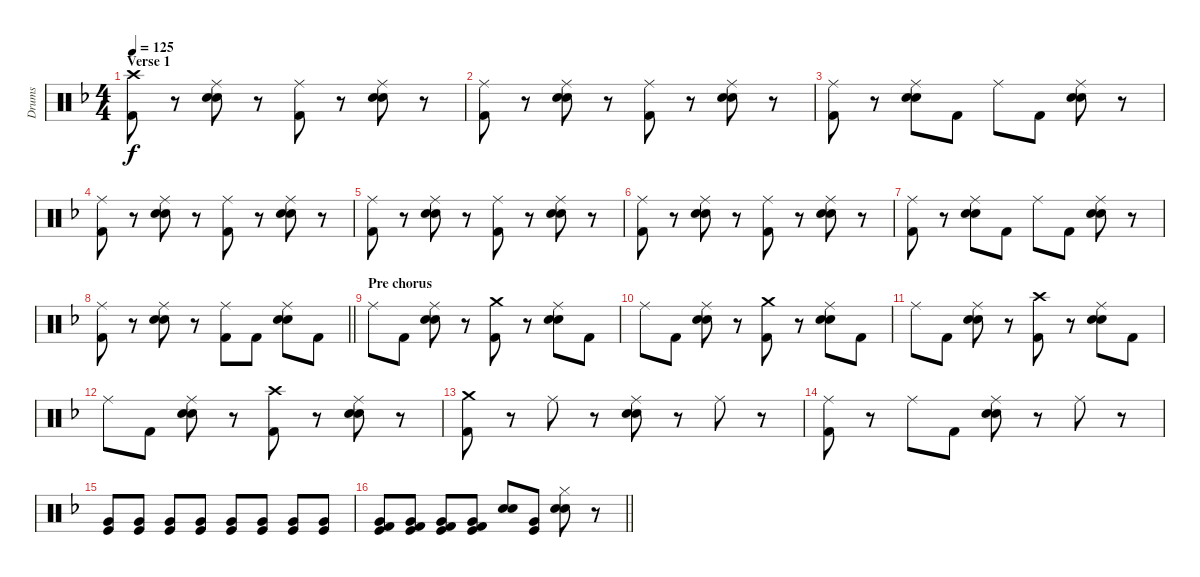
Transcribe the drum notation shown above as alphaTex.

\track ("Drums" "Drums") {instrument percussion}
\staff {score}
\articulation defaults
\ts (4 4)
\section ("" "Verse 1")
\tempo 125
\clef neutral
\ks f
("Crash high (hit)" "Kick (hit) 2").8{dy f} r.8 ("Ride (middle)" "Electric Snare (hit)" "Snare (hit) 2").8 r.8 ("Ride (middle)" "Kick (hit) 2").8 r.8 ("Ride (middle)" "Electric Snare (hit)" "Snare (hit) 2").8 r.8 |
("Ride (middle)" "Kick (hit) 2").8 r.8 ("Ride (middle)" "Electric Snare (hit)" "Snare (hit) 2").8 r.8 ("Ride (middle)" "Kick (hit) 2").8 r.8 ("Ride (middle)" "Electric Snare (hit)" "Snare (hit) 2").8 r.8 |
("Ride (middle)" "Kick (hit) 2").8 r.8 ("Ride (middle)" "Electric Snare (hit)" "Snare (hit) 2").8 "Kick (hit) 2".8 "Ride (middle)".8 "Kick (hit) 2".8 ("Ride (middle)" "Electric Snare (hit)" "Snare (hit) 2").8 r.8 |
("Ride (middle)" "Kick (hit) 2").8 r.8 ("Ride (middle)" "Electric Snare (hit)" "Snare (hit) 2").8 r.8 ("Ride (middle)" "Kick (hit) 2").8 r.8 ("Ride (middle)" "Electric Snare (hit)" "Snare (hit) 2").8 r.8 |
("Ride (middle)" "Kick (hit) 2").8 r.8 ("Ride (middle)" "Electric Snare (hit)" "Snare (hit) 2").8 r.8 ("Ride (middle)" "Kick (hit) 2").8 r.8 ("Ride (middle)" "Electric Snare (hit)" "Snare (hit) 2").8 r.8 |
("Ride (middle)" "Kick (hit) 2").8 r.8 ("Ride (middle)" "Electric Snare (hit)" "Snare (hit) 2").8 r.8 ("Ride (middle)" "Kick (hit) 2").8 r.8 ("Ride (middle)" "Electric Snare (hit)" "Snare (hit) 2").8 r.8 |
("Ride (middle)" "Kick (hit) 2").8 r.8 ("Ride (middle)" "Electric Snare (hit)" "Snare (hit) 2").8 "Kick (hit) 2".8 "Ride (middle)".8 "Kick (hit) 2".8 ("Ride (middle)" "Electric Snare (hit)" "Snare (hit) 2").8 r.8 |
\barLineRight lightlight
("Ride (middle)" "Kick (hit) 2").8 r.8 ("Ride (middle)" "Electric Snare (hit)" "Snare (hit) 2").8 r.8 ("Ride (middle)" "Kick (hit) 2").8 "Kick (hit) 2".8 ("Ride (middle)" "Electric Snare (hit)" "Snare (hit) 2").8 "Kick (hit) 2".8 |
\section ("" "Pre chorus")
"Ride (middle)".8 "Kick (hit) 2".8 ("Ride (middle)" "Electric Snare (hit)" "Snare (hit) 2").8 r.8 ("Crash medium (hit)" "Kick (hit) 2").8 r.8 ("Ride (middle)" "Electric Snare (hit)" "Snare (hit) 2").8 "Kick (hit) 2".8 |
"Ride (middle)".8 "Kick (hit) 2".8 ("Ride (middle)" "Electric Snare (hit)" "Snare (hit) 2").8 r.8 ("Crash medium (hit)" "Kick (hit) 2").8 r.8 ("Ride (middle)" "Electric Snare (hit)" "Snare (hit) 2").8 "Kick (hit) 2".8 |
"Ride (middle)".8 "Kick (hit) 2".8 ("Ride (middle)" "Electric Snare (hit)" "Snare (hit) 2").8 r.8 ("Crash high (hit)" "Kick (hit) 2").8 r.8 ("Ride (middle)" "Electric Snare (hit)" "Snare (hit) 2").8 "Kick (hit) 2".8 |
"Ride (middle)".8 "Kick (hit) 2".8 ("Ride (middle)" "Electric Snare (hit)" "Snare (hit) 2").8 r.8 ("Crash high (hit)" "Kick (hit) 2").8 r.8 ("Ride (middle)" "Electric Snare (hit)" "Snare (hit) 2").8 r.8 |
("Crash medium (hit)" "Kick (hit) 2").8 r.8 "Ride (middle)".8 r.8 ("Ride (middle)" "Electric Snare (hit)" "Snare (hit) 2").8 r.8 "Ride (middle)".8 r.8 |
("Ride (middle)" "Kick (hit) 2").8 r.8 "Ride (middle)".8 "Kick (hit) 2".8 ("Ride (middle)" "Snare (hit) 2" "Snare (hit) 2").8 r.8 "Ride (middle)".8 r.8 |
("Very Low Tom (hit)" "Kick (hit)").8 ("Very Low Tom (hit)" "Kick (hit)").8 ("Very Low Tom (hit)" "Kick (hit)").8 ("Very Low Tom (hit)" "Kick (hit)").8 ("Very Low Tom (hit)" "Kick (hit)").8 ("Very Low Tom (hit)" "Kick (hit)").8 ("Very Low Tom (hit)" "Kick (hit)").8 ("Very Low Tom (hit)" "Kick (hit)").8 |
\barLineRight lightlight
("Very Low Tom (hit)" "Kick (hit)" "Kick (hit) 2").8 ("Very Low Tom (hit)" "Kick (hit)" "Kick (hit) 2").8 ("Very Low Tom (hit)" "Kick (hit)" "Kick (hit) 2").8 ("Very Low Tom (hit)" "Kick (hit)" "Kick (hit) 2").8 ("Electric Snare (hit)" "Snare (hit) 2").8 ("Very Low Tom (hit)" "Kick (hit)").8 ("Hi-Hat (closed)" "Electric Snare (hit)" "Snare (hit) 2").8 r.8
